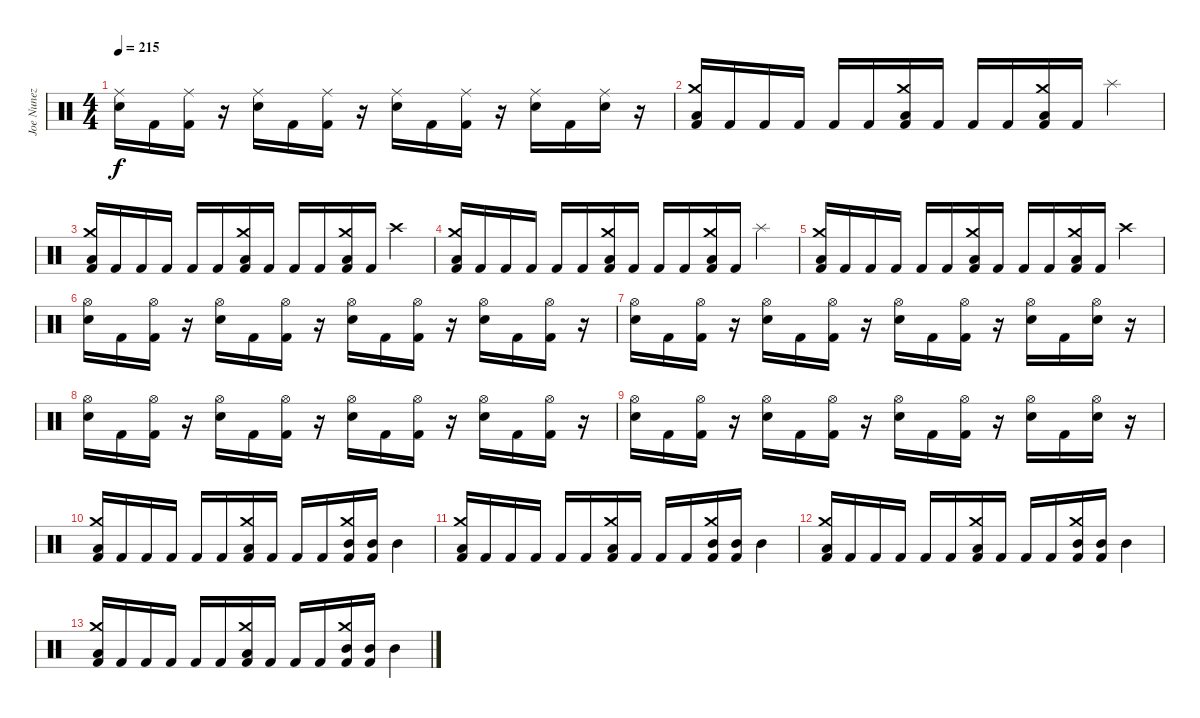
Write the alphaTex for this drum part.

\track ("Joe Nunez" "Joe Nunez") {instrument percussion}
\staff {score}
\articulation defaults
\ts (4 4)
\tempo 215
\clef neutral
\ks c
("Ride (middle)" "Electric Snare (hit)").16{dy f} "Kick (hit) 2".16 ("Ride (middle)" "Kick (hit) 2").16 r.16 ("Ride (middle)" "Electric Snare (hit)").16 "Kick (hit) 2".16 ("Ride (middle)" "Kick (hit) 2").16 r.16 ("Ride (middle)" "Electric Snare (hit)").16 "Kick (hit) 2".16 ("Ride (middle)" "Kick (hit) 2").16 r.16 ("Ride (middle)" "Electric Snare (hit)").16 "Kick (hit) 2".16 ("Ride (middle)" "Electric Snare (hit)").16 r.16 |
("Crash medium (hit)" "Low Tom (hit)" "Kick (hit) 2").16 "Kick (hit) 2".16 "Kick (hit) 2".16 "Kick (hit) 2".16 "Kick (hit) 2".16 "Kick (hit) 2".16 ("Crash medium (hit)" "Low Tom (hit)" "Kick (hit) 2").16 "Kick (hit) 2".16 "Kick (hit) 2".16 "Kick (hit) 2".16 ("Crash medium (hit)" "Low Tom (hit)" "Kick (hit) 2").16 "Kick (hit) 2".16 "Splash (hit)".4 |
("Crash medium (hit)" "Low Tom (hit)" "Kick (hit) 2").16 "Kick (hit) 2".16 "Kick (hit) 2".16 "Kick (hit) 2".16 "Kick (hit) 2".16 "Kick (hit) 2".16 ("Crash medium (hit)" "Low Tom (hit)" "Kick (hit) 2").16 "Kick (hit) 2".16 "Kick (hit) 2".16 "Kick (hit) 2".16 ("Crash medium (hit)" "Low Tom (hit)" "Kick (hit) 2").16 "Kick (hit) 2".16 "Crash high (hit)".4 |
("Crash medium (hit)" "Low Tom (hit)" "Kick (hit) 2").16 "Kick (hit) 2".16 "Kick (hit) 2".16 "Kick (hit) 2".16 "Kick (hit) 2".16 "Kick (hit) 2".16 ("Crash medium (hit)" "Low Tom (hit)" "Kick (hit) 2").16 "Kick (hit) 2".16 "Kick (hit) 2".16 "Kick (hit) 2".16 ("Crash medium (hit)" "Low Tom (hit)" "Kick (hit) 2").16 "Kick (hit) 2".16 "Splash (hit)".4 |
("Crash medium (hit)" "Low Tom (hit)" "Kick (hit) 2").16 "Kick (hit) 2".16 "Kick (hit) 2".16 "Kick (hit) 2".16 "Kick (hit) 2".16 "Kick (hit) 2".16 ("Crash medium (hit)" "Low Tom (hit)" "Kick (hit) 2").16 "Kick (hit) 2".16 "Kick (hit) 2".16 "Kick (hit) 2".16 ("Crash medium (hit)" "Low Tom (hit)" "Kick (hit) 2").16 "Kick (hit) 2".16 "Crash high (hit)".4 |
("Hi-Hat (open)" "Electric Snare (hit)").16 "Kick (hit) 2".16 ("Hi-Hat (open)" "Kick (hit) 2").16 r.16 ("Hi-Hat (open)" "Electric Snare (hit)").16 "Kick (hit) 2".16 ("Hi-Hat (open)" "Kick (hit) 2").16 r.16 ("Hi-Hat (open)" "Electric Snare (hit)").16 "Kick (hit) 2".16 ("Hi-Hat (open)" "Kick (hit) 2").16 r.16 ("Hi-Hat (open)" "Electric Snare (hit)").16 "Kick (hit) 2".16 ("Hi-Hat (open)" "Kick (hit) 2").16 r.16 |
("Hi-Hat (open)" "Electric Snare (hit)").16 "Kick (hit) 2".16 ("Hi-Hat (open)" "Kick (hit) 2").16 r.16 ("Hi-Hat (open)" "Electric Snare (hit)").16 "Kick (hit) 2".16 ("Hi-Hat (open)" "Kick (hit) 2").16 r.16 ("Hi-Hat (open)" "Electric Snare (hit)").16 "Kick (hit) 2".16 ("Hi-Hat (open)" "Kick (hit) 2").16 r.16 ("Hi-Hat (open)" "Electric Snare (hit)").16 "Kick (hit) 2".16 ("Hi-Hat (open)" "Electric Snare (hit)").16 r.16 |
("Hi-Hat (open)" "Electric Snare (hit)").16 "Kick (hit) 2".16 ("Hi-Hat (open)" "Kick (hit) 2").16 r.16 ("Hi-Hat (open)" "Electric Snare (hit)").16 "Kick (hit) 2".16 ("Hi-Hat (open)" "Kick (hit) 2").16 r.16 ("Hi-Hat (open)" "Electric Snare (hit)").16 "Kick (hit) 2".16 ("Hi-Hat (open)" "Kick (hit) 2").16 r.16 ("Hi-Hat (open)" "Electric Snare (hit)").16 "Kick (hit) 2".16 ("Hi-Hat (open)" "Kick (hit) 2").16 r.16 |
("Hi-Hat (open)" "Electric Snare (hit)").16 "Kick (hit) 2".16 ("Hi-Hat (open)" "Kick (hit) 2").16 r.16 ("Hi-Hat (open)" "Electric Snare (hit)").16 "Kick (hit) 2".16 ("Hi-Hat (open)" "Kick (hit) 2").16 r.16 ("Hi-Hat (open)" "Electric Snare (hit)").16 "Kick (hit) 2".16 ("Hi-Hat (open)" "Kick (hit) 2").16 r.16 ("Hi-Hat (open)" "Electric Snare (hit)").16 "Kick (hit) 2".16 ("Hi-Hat (open)" "Electric Snare (hit)").16 r.16 |
("Crash medium (hit)" "Low Floor Tom (hit)" "Kick (hit) 2").16 "Kick (hit) 2".16 "Kick (hit) 2".16 "Kick (hit) 2".16 "Kick (hit) 2".16 "Kick (hit) 2".16 ("Crash medium (hit)" "Low Floor Tom (hit)" "Kick (hit) 2").16 "Kick (hit) 2".16 "Kick (hit) 2".16 "Kick (hit) 2".16 ("Crash medium (hit)" "Mid Tom (hit)" "Kick (hit) 2").16 ("Mid Tom (hit)" "Kick (hit) 2").16 "Mid Tom (hit)".4 |
("Crash medium (hit)" "Low Floor Tom (hit)" "Kick (hit) 2").16 "Kick (hit) 2".16 "Kick (hit) 2".16 "Kick (hit) 2".16 "Kick (hit) 2".16 "Kick (hit) 2".16 ("Crash medium (hit)" "Low Floor Tom (hit)" "Kick (hit) 2").16 "Kick (hit) 2".16 "Kick (hit) 2".16 "Kick (hit) 2".16 ("Crash medium (hit)" "Mid Tom (hit)" "Kick (hit) 2").16 ("Mid Tom (hit)" "Kick (hit) 2").16 "Mid Tom (hit)".4 |
("Crash medium (hit)" "Low Floor Tom (hit)" "Kick (hit) 2").16 "Kick (hit) 2".16 "Kick (hit) 2".16 "Kick (hit) 2".16 "Kick (hit) 2".16 "Kick (hit) 2".16 ("Crash medium (hit)" "Low Floor Tom (hit)" "Kick (hit) 2").16 "Kick (hit) 2".16 "Kick (hit) 2".16 "Kick (hit) 2".16 ("Crash medium (hit)" "Mid Tom (hit)" "Kick (hit) 2").16 ("Mid Tom (hit)" "Kick (hit) 2").16 "Mid Tom (hit)".4 |
("Crash medium (hit)" "Low Floor Tom (hit)" "Kick (hit) 2").16 "Kick (hit) 2".16 "Kick (hit) 2".16 "Kick (hit) 2".16 "Kick (hit) 2".16 "Kick (hit) 2".16 ("Crash medium (hit)" "Low Floor Tom (hit)" "Kick (hit) 2").16 "Kick (hit) 2".16 "Kick (hit) 2".16 "Kick (hit) 2".16 ("Crash medium (hit)" "Mid Tom (hit)" "Kick (hit) 2").16 ("Mid Tom (hit)" "Kick (hit) 2").16 "Mid Tom (hit)".4
